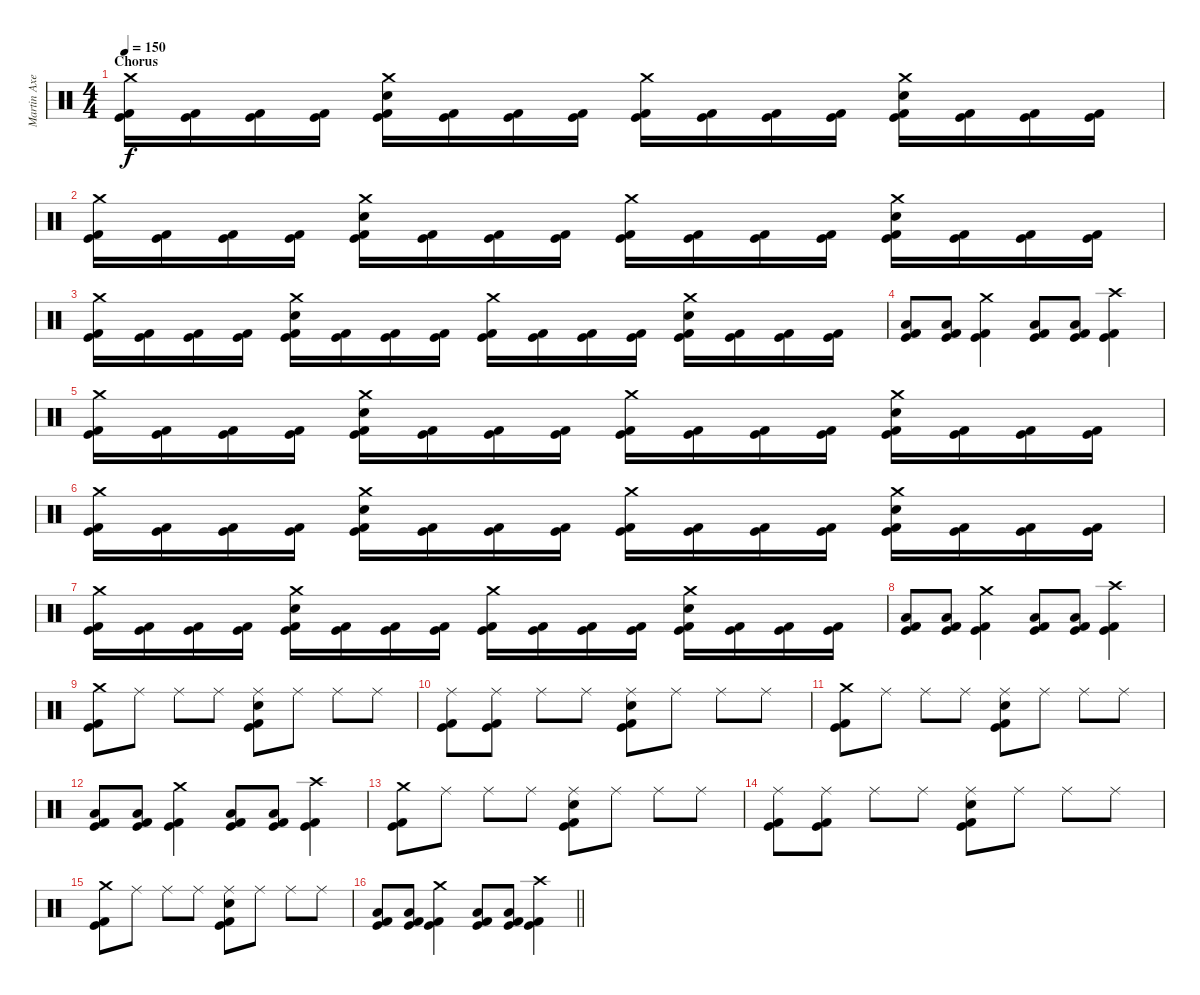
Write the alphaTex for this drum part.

\track ("Martin Axenrot" "Martin Axe") {instrument percussion}
\staff {score}
\articulation defaults
\ts (4 4)
\section ("" "Chorus")
\tempo 150
\clef neutral
\ks c
("Crash medium (hit)" "Kick (hit) 2" "Kick (hit)").16{dy f} ("Kick (hit) 2" "Kick (hit)").16 ("Kick (hit) 2" "Kick (hit)").16 ("Kick (hit) 2" "Kick (hit)").16 ("Crash medium (hit)" "Electric Snare (hit)" "Kick (hit) 2" "Kick (hit)").16 ("Kick (hit) 2" "Kick (hit)").16 ("Kick (hit) 2" "Kick (hit)").16 ("Kick (hit) 2" "Kick (hit)").16 ("Crash medium (hit)" "Kick (hit) 2" "Kick (hit)").16 ("Kick (hit) 2" "Kick (hit)").16 ("Kick (hit) 2" "Kick (hit)").16 ("Kick (hit) 2" "Kick (hit)").16 ("Crash medium (hit)" "Electric Snare (hit)" "Kick (hit) 2" "Kick (hit)").16 ("Kick (hit) 2" "Kick (hit)").16 ("Kick (hit) 2" "Kick (hit)").16 ("Kick (hit) 2" "Kick (hit)").16 |
("Crash medium (hit)" "Kick (hit) 2" "Kick (hit)").16 ("Kick (hit) 2" "Kick (hit)").16 ("Kick (hit) 2" "Kick (hit)").16 ("Kick (hit) 2" "Kick (hit)").16 ("Crash medium (hit)" "Electric Snare (hit)" "Kick (hit) 2" "Kick (hit)").16 ("Kick (hit) 2" "Kick (hit)").16 ("Kick (hit) 2" "Kick (hit)").16 ("Kick (hit) 2" "Kick (hit)").16 ("Crash medium (hit)" "Kick (hit) 2" "Kick (hit)").16 ("Kick (hit) 2" "Kick (hit)").16 ("Kick (hit) 2" "Kick (hit)").16 ("Kick (hit) 2" "Kick (hit)").16 ("Crash medium (hit)" "Electric Snare (hit)" "Kick (hit) 2" "Kick (hit)").16 ("Kick (hit) 2" "Kick (hit)").16 ("Kick (hit) 2" "Kick (hit)").16 ("Kick (hit) 2" "Kick (hit)").16 |
("Crash medium (hit)" "Kick (hit) 2" "Kick (hit)").16 ("Kick (hit) 2" "Kick (hit)").16 ("Kick (hit) 2" "Kick (hit)").16 ("Kick (hit) 2" "Kick (hit)").16 ("Crash medium (hit)" "Electric Snare (hit)" "Kick (hit) 2" "Kick (hit)").16 ("Kick (hit) 2" "Kick (hit)").16 ("Kick (hit) 2" "Kick (hit)").16 ("Kick (hit) 2" "Kick (hit)").16 ("Crash medium (hit)" "Kick (hit) 2" "Kick (hit)").16 ("Kick (hit) 2" "Kick (hit)").16 ("Kick (hit) 2" "Kick (hit)").16 ("Kick (hit) 2" "Kick (hit)").16 ("Crash medium (hit)" "Electric Snare (hit)" "Kick (hit) 2" "Kick (hit)").16 ("Kick (hit) 2" "Kick (hit)").16 ("Kick (hit) 2" "Kick (hit)").16 ("Kick (hit) 2" "Kick (hit)").16 |
("Low Floor Tom (hit)" "Kick (hit) 2" "Kick (hit)").8 ("Low Floor Tom (hit)" "Kick (hit) 2" "Kick (hit)").8 ("Crash medium (hit)" "Kick (hit) 2" "Kick (hit)").4 ("Low Floor Tom (hit)" "Kick (hit) 2" "Kick (hit)").8 ("Low Floor Tom (hit)" "Kick (hit) 2" "Kick (hit)").8 ("Crash high (hit)" "Kick (hit) 2" "Kick (hit)").4 |
("Crash medium (hit)" "Kick (hit) 2" "Kick (hit)").16 ("Kick (hit) 2" "Kick (hit)").16 ("Kick (hit) 2" "Kick (hit)").16 ("Kick (hit) 2" "Kick (hit)").16 ("Crash medium (hit)" "Electric Snare (hit)" "Kick (hit) 2" "Kick (hit)").16 ("Kick (hit) 2" "Kick (hit)").16 ("Kick (hit) 2" "Kick (hit)").16 ("Kick (hit) 2" "Kick (hit)").16 ("Crash medium (hit)" "Kick (hit) 2" "Kick (hit)").16 ("Kick (hit) 2" "Kick (hit)").16 ("Kick (hit) 2" "Kick (hit)").16 ("Kick (hit) 2" "Kick (hit)").16 ("Crash medium (hit)" "Electric Snare (hit)" "Kick (hit) 2" "Kick (hit)").16 ("Kick (hit) 2" "Kick (hit)").16 ("Kick (hit) 2" "Kick (hit)").16 ("Kick (hit) 2" "Kick (hit)").16 |
("Crash medium (hit)" "Kick (hit) 2" "Kick (hit)").16 ("Kick (hit) 2" "Kick (hit)").16 ("Kick (hit) 2" "Kick (hit)").16 ("Kick (hit) 2" "Kick (hit)").16 ("Crash medium (hit)" "Electric Snare (hit)" "Kick (hit) 2" "Kick (hit)").16 ("Kick (hit) 2" "Kick (hit)").16 ("Kick (hit) 2" "Kick (hit)").16 ("Kick (hit) 2" "Kick (hit)").16 ("Crash medium (hit)" "Kick (hit) 2" "Kick (hit)").16 ("Kick (hit) 2" "Kick (hit)").16 ("Kick (hit) 2" "Kick (hit)").16 ("Kick (hit) 2" "Kick (hit)").16 ("Crash medium (hit)" "Electric Snare (hit)" "Kick (hit) 2" "Kick (hit)").16 ("Kick (hit) 2" "Kick (hit)").16 ("Kick (hit) 2" "Kick (hit)").16 ("Kick (hit) 2" "Kick (hit)").16 |
("Crash medium (hit)" "Kick (hit) 2" "Kick (hit)").16 ("Kick (hit) 2" "Kick (hit)").16 ("Kick (hit) 2" "Kick (hit)").16 ("Kick (hit) 2" "Kick (hit)").16 ("Crash medium (hit)" "Electric Snare (hit)" "Kick (hit) 2" "Kick (hit)").16 ("Kick (hit) 2" "Kick (hit)").16 ("Kick (hit) 2" "Kick (hit)").16 ("Kick (hit) 2" "Kick (hit)").16 ("Crash medium (hit)" "Kick (hit) 2" "Kick (hit)").16 ("Kick (hit) 2" "Kick (hit)").16 ("Kick (hit) 2" "Kick (hit)").16 ("Kick (hit) 2" "Kick (hit)").16 ("Crash medium (hit)" "Electric Snare (hit)" "Kick (hit) 2" "Kick (hit)").16 ("Kick (hit) 2" "Kick (hit)").16 ("Kick (hit) 2" "Kick (hit)").16 ("Kick (hit) 2" "Kick (hit)").16 |
("Low Floor Tom (hit)" "Kick (hit) 2" "Kick (hit)").8 ("Low Floor Tom (hit)" "Kick (hit) 2" "Kick (hit)").8 ("Crash medium (hit)" "Kick (hit) 2" "Kick (hit)").4 ("Low Floor Tom (hit)" "Kick (hit) 2" "Kick (hit)").8 ("Low Floor Tom (hit)" "Kick (hit) 2" "Kick (hit)").8 ("Crash high (hit)" "Kick (hit) 2" "Kick (hit)").4 |
("Crash medium (hit)" "Kick (hit) 2" "Kick (hit)").8 "Ride (middle)".8 "Ride (middle)".8 "Ride (middle)".8 ("Ride (middle)" "Electric Snare (hit)" "Kick (hit) 2" "Kick (hit)").8 "Ride (middle)".8 "Ride (middle)".8 "Ride (middle)".8 |
("Ride (middle)" "Kick (hit) 2" "Kick (hit)").8 ("Ride (middle)" "Kick (hit) 2" "Kick (hit)").8 "Ride (middle)".8 "Ride (middle)".8 ("Ride (middle)" "Electric Snare (hit)" "Kick (hit) 2" "Kick (hit)").8 "Ride (middle)".8 "Ride (middle)".8 "Ride (middle)".8 |
("Crash medium (hit)" "Kick (hit) 2" "Kick (hit)").8 "Ride (middle)".8 "Ride (middle)".8 "Ride (middle)".8 ("Ride (middle)" "Electric Snare (hit)" "Kick (hit) 2" "Kick (hit)").8 "Ride (middle)".8 "Ride (middle)".8 "Ride (middle)".8 |
("Low Floor Tom (hit)" "Kick (hit) 2" "Kick (hit)").8 ("Low Floor Tom (hit)" "Kick (hit) 2" "Kick (hit)").8 ("Crash medium (hit)" "Kick (hit) 2" "Kick (hit)").4 ("Low Floor Tom (hit)" "Kick (hit) 2" "Kick (hit)").8 ("Low Floor Tom (hit)" "Kick (hit) 2" "Kick (hit)").8 ("Crash high (hit)" "Kick (hit) 2" "Kick (hit)").4 |
("Crash medium (hit)" "Kick (hit) 2" "Kick (hit)").8 "Ride (middle)".8 "Ride (middle)".8 "Ride (middle)".8 ("Ride (middle)" "Electric Snare (hit)" "Kick (hit) 2" "Kick (hit)").8 "Ride (middle)".8 "Ride (middle)".8 "Ride (middle)".8 |
("Ride (middle)" "Kick (hit) 2" "Kick (hit)").8 ("Ride (middle)" "Kick (hit) 2" "Kick (hit)").8 "Ride (middle)".8 "Ride (middle)".8 ("Ride (middle)" "Electric Snare (hit)" "Kick (hit) 2" "Kick (hit)").8 "Ride (middle)".8 "Ride (middle)".8 "Ride (middle)".8 |
("Crash medium (hit)" "Kick (hit) 2" "Kick (hit)").8 "Ride (middle)".8 "Ride (middle)".8 "Ride (middle)".8 ("Ride (middle)" "Electric Snare (hit)" "Kick (hit) 2" "Kick (hit)").8 "Ride (middle)".8 "Ride (middle)".8 "Ride (middle)".8 |
\barLineRight lightlight
("Low Floor Tom (hit)" "Kick (hit) 2" "Kick (hit)").8 ("Low Floor Tom (hit)" "Kick (hit) 2" "Kick (hit)").8 ("Crash medium (hit)" "Kick (hit) 2" "Kick (hit)").4 ("Low Floor Tom (hit)" "Kick (hit) 2" "Kick (hit)").8 ("Low Floor Tom (hit)" "Kick (hit) 2" "Kick (hit)").8 ("Crash high (hit)" "Kick (hit) 2" "Kick (hit)").4
